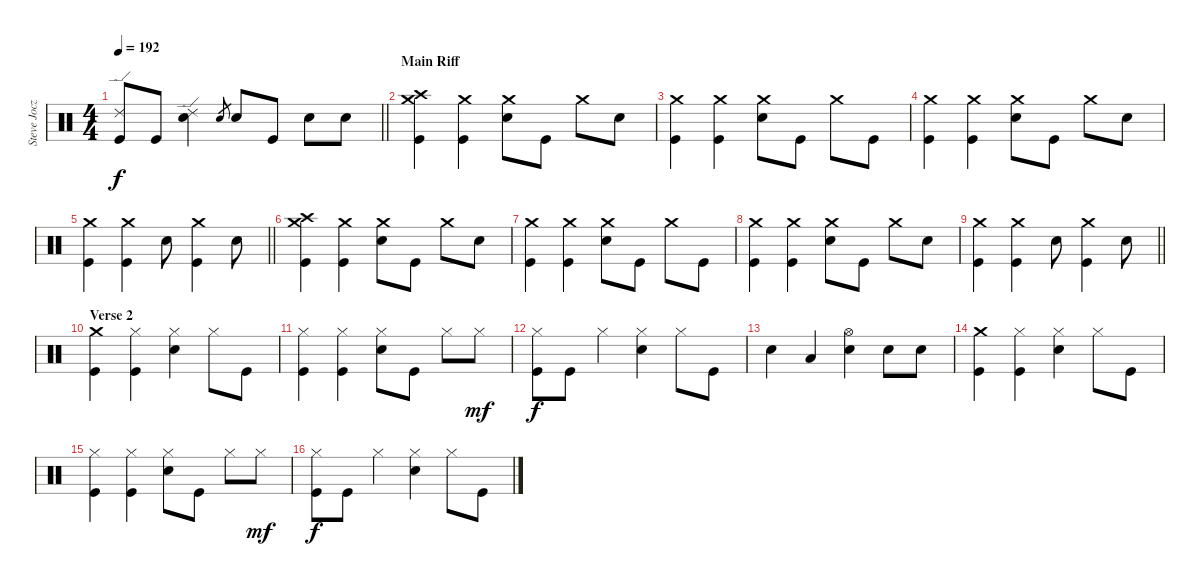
\track ("Steve Jocz" "Steve Jocz") {instrument percussion}
\staff {score}
\articulation defaults
\ts (4 4)
\tempo 192
\clef neutral
\barLineRight lightlight
\ks c
("Ride (edge) 2" "Kick (hit)").8{dy f} "Kick (hit)".8 ("Ride (edge) 2" "Electric Snare (hit)").4 "Electric Snare (hit)".8{gr} "Electric Snare (hit)".8 "Kick (hit)".8 "Electric Snare (hit)".8 "Electric Snare (hit)".8 |
\section ("" "Main Riff")
("Crash medium (hit)" "Crash high (hit)" "Kick (hit)").4 ("Crash medium (hit)" "Kick (hit)").4 ("Crash medium (hit)" "Electric Snare (hit)").8 "Kick (hit)".8 "Crash medium (hit)".8 "Electric Snare (hit)".8 |
("Crash medium (hit)" "Kick (hit)").4 ("Crash medium (hit)" "Kick (hit)").4 ("Crash medium (hit)" "Electric Snare (hit)").8 "Kick (hit)".8 "Crash medium (hit)".8 "Kick (hit)".8 |
("Crash medium (hit)" "Kick (hit)").4 ("Crash medium (hit)" "Kick (hit)").4 ("Crash medium (hit)" "Electric Snare (hit)").8 "Kick (hit)".8 "Crash medium (hit)".8 "Electric Snare (hit)".8 |
\barLineRight lightlight
("Crash medium (hit)" "Kick (hit)").4 ("Crash medium (hit)" "Kick (hit)").4 "Electric Snare (hit)".8 ("Crash medium (hit)" "Kick (hit)").4 "Electric Snare (hit)".8 |
("Crash medium (hit)" "Crash high (hit)" "Kick (hit)").4 ("Crash medium (hit)" "Kick (hit)").4 ("Crash medium (hit)" "Electric Snare (hit)").8 "Kick (hit)".8 "Crash medium (hit)".8 "Electric Snare (hit)".8 |
("Crash medium (hit)" "Kick (hit)").4 ("Crash medium (hit)" "Kick (hit)").4 ("Crash medium (hit)" "Electric Snare (hit)").8 "Kick (hit)".8 "Crash medium (hit)".8 "Kick (hit)".8 |
("Crash medium (hit)" "Kick (hit)").4 ("Crash medium (hit)" "Kick (hit)").4 ("Crash medium (hit)" "Electric Snare (hit)").8 "Kick (hit)".8 "Crash medium (hit)".8 "Electric Snare (hit)".8 |
\barLineRight lightlight
("Crash medium (hit)" "Kick (hit)").4 ("Crash medium (hit)" "Kick (hit)").4 "Electric Snare (hit)".8 ("Crash medium (hit)" "Kick (hit)").4 "Electric Snare (hit)".8 |
\section ("" "Verse 2")
("Crash medium (hit)" "Kick (hit)").4{volume 12} ("Hi-Hat (closed)" "Kick (hit)").4 ("Hi-Hat (closed)" "Electric Snare (hit)").4 "Hi-Hat (closed)".8 "Kick (hit)".8 |
("Hi-Hat (closed)" "Kick (hit)").4 ("Hi-Hat (closed)" "Kick (hit)").4 ("Hi-Hat (closed)" "Electric Snare (hit)").8 "Kick (hit)".8 "Hi-Hat (closed)".8 "Hi-Hat (closed)".8{dy mf} |
("Hi-Hat (closed)" "Kick (hit)").8{dy f} "Kick (hit)".8 "Hi-Hat (closed)".4 ("Hi-Hat (closed)" "Electric Snare (hit)").4 "Hi-Hat (closed)".8 "Kick (hit)".8 |
"Electric Snare (hit)".4 "Low Tom (hit)".4 ("Hi-Hat (open)" "Electric Snare (hit)").4 "Electric Snare (hit)".8 "Electric Snare (hit)".8 |
("Crash medium (hit)" "Kick (hit)").4 ("Hi-Hat (closed)" "Kick (hit)").4 ("Hi-Hat (closed)" "Electric Snare (hit)").4 "Hi-Hat (closed)".8 "Kick (hit)".8 |
("Hi-Hat (closed)" "Kick (hit)").4 ("Hi-Hat (closed)" "Kick (hit)").4 ("Hi-Hat (closed)" "Electric Snare (hit)").8 "Kick (hit)".8 "Hi-Hat (closed)".8 "Hi-Hat (closed)".8{dy mf} |
("Hi-Hat (closed)" "Kick (hit)").8{dy f} "Kick (hit)".8 "Hi-Hat (closed)".4 ("Hi-Hat (closed)" "Electric Snare (hit)").4 "Hi-Hat (closed)".8 "Kick (hit)".8
